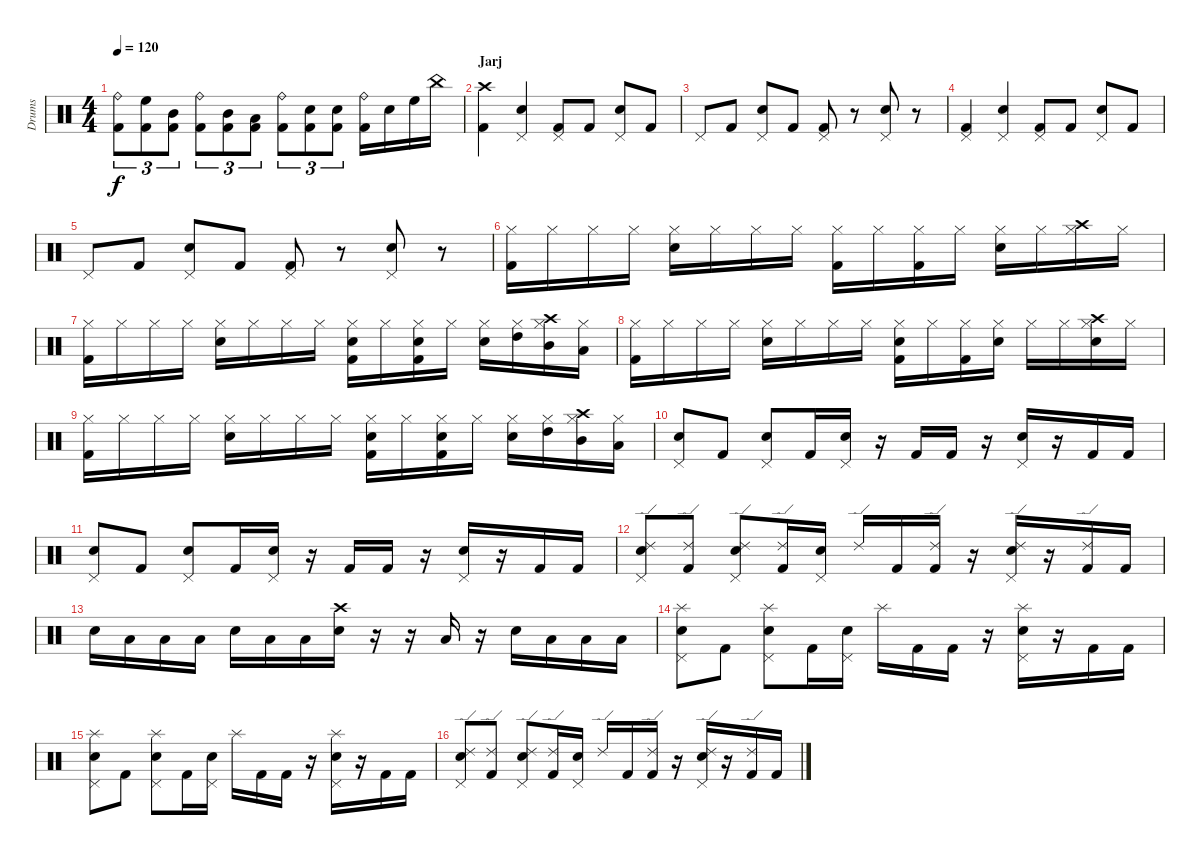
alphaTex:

\track ("Drums" "Drums") {instrument percussion}
\staff {score}
\articulation defaults
\ts (4 4)
\tempo 120
\clef neutral
\ks c
("Ride (bell)" "Kick (hit) 2").8{tu (3 2) dy f} ("High Floor Tom (hit)" "Kick (hit) 2").8{tu (3 2)} ("Mid Tom (hit)" "Kick (hit) 2").8{tu (3 2)} ("Ride (bell)" "Kick (hit) 2").8{tu (3 2)} ("Mid Tom (hit)" "Kick (hit) 2").8{tu (3 2)} ("Low Tom (hit)" "Kick (hit) 2").8{tu (3 2)} ("Ride (bell)" "Kick (hit) 2").8{tu (3 2)} ("Electric Snare (hit)" "Kick (hit) 2").8{tu (3 2)} ("Electric Snare (hit)" "Kick (hit) 2").8{tu (3 2)} ("Ride (bell)" "Kick (hit) 2").16 "Electric Snare (hit)".16 "High Floor Tom (hit)".16 "China (hit)".16 |
\section ("" "Jarj")
("Crash high (hit)" "Kick (hit) 2").4 ("Pedal Hi-Hat (hit)" "Electric Snare (hit)").4 ("Pedal Hi-Hat (hit)" "Kick (hit) 2").8 "Kick (hit) 2".8 ("Pedal Hi-Hat (hit)" "Electric Snare (hit)").8 "Kick (hit) 2".8 |
"Pedal Hi-Hat (hit)".8 "Kick (hit) 2".8 ("Pedal Hi-Hat (hit)" "Electric Snare (hit)").8 "Kick (hit) 2".8 ("Pedal Hi-Hat (hit)" "Kick (hit) 2").8 r.8 ("Pedal Hi-Hat (hit)" "Electric Snare (hit)").8 r.8 |
("Pedal Hi-Hat (hit)" "Kick (hit) 2").4 ("Pedal Hi-Hat (hit)" "Electric Snare (hit)").4 ("Pedal Hi-Hat (hit)" "Kick (hit) 2").8 "Kick (hit) 2".8 ("Pedal Hi-Hat (hit)" "Electric Snare (hit)").8 "Kick (hit) 2".8 |
"Pedal Hi-Hat (hit)".8 "Kick (hit) 2".8 ("Pedal Hi-Hat (hit)" "Electric Snare (hit)").8 "Kick (hit) 2".8 ("Pedal Hi-Hat (hit)" "Kick (hit) 2").8 r.8 ("Pedal Hi-Hat (hit)" "Electric Snare (hit)").8 r.8 |
("Hi-Hat (closed)" "Kick (hit) 2").16 "Hi-Hat (closed)".16 "Hi-Hat (closed)".16 "Hi-Hat (closed)".16 ("Hi-Hat (closed)" "Electric Snare (hit)").16 "Hi-Hat (closed)".16 "Hi-Hat (closed)".16 "Hi-Hat (closed)".16 ("Hi-Hat (closed)" "Kick (hit) 2").16 "Hi-Hat (closed)".16 ("Hi-Hat (closed)" "Kick (hit) 2").16 "Hi-Hat (closed)".16 ("Hi-Hat (closed)" "Electric Snare (hit)").16 "Hi-Hat (closed)".16 ("Crash high (hit)" "Hi-Hat (closed)").16 "Hi-Hat (closed)".16 |
("Hi-Hat (closed)" "Kick (hit) 2").16 "Hi-Hat (closed)".16 "Hi-Hat (closed)".16 "Hi-Hat (closed)".16 ("Hi-Hat (closed)" "Electric Snare (hit)").16 "Hi-Hat (closed)".16 "Hi-Hat (closed)".16 "Hi-Hat (closed)".16 ("Hi-Hat (closed)" "Electric Snare (hit)" "Kick (hit) 2").16 "Hi-Hat (closed)".16 ("Hi-Hat (closed)" "Electric Snare (hit)" "Kick (hit) 2").16 "Hi-Hat (closed)".16 ("Hi-Hat (closed)" "Electric Snare (hit)").16 ("Hi-Hat (closed)" "High Tom (hit)").16 ("Crash high (hit)" "Hi-Hat (closed)" "Mid Tom (hit)").16 ("Hi-Hat (closed)" "Low Tom (hit)").16 |
("Hi-Hat (closed)" "Kick (hit) 2").16 "Hi-Hat (closed)".16 "Hi-Hat (closed)".16 "Hi-Hat (closed)".16 ("Hi-Hat (closed)" "Electric Snare (hit)").16 "Hi-Hat (closed)".16 "Hi-Hat (closed)".16 "Hi-Hat (closed)".16 ("Hi-Hat (closed)" "Electric Snare (hit)" "Kick (hit) 2").16 "Hi-Hat (closed)".16 ("Hi-Hat (closed)" "Kick (hit) 2").16 ("Hi-Hat (closed)" "Electric Snare (hit)").16 "Hi-Hat (closed)".16 "Hi-Hat (closed)".16 ("Crash high (hit)" "Hi-Hat (closed)" "Electric Snare (hit)").16 "Hi-Hat (closed)".16 |
("Hi-Hat (closed)" "Kick (hit) 2").16 "Hi-Hat (closed)".16 "Hi-Hat (closed)".16 "Hi-Hat (closed)".16 ("Hi-Hat (closed)" "Electric Snare (hit)").16 "Hi-Hat (closed)".16 "Hi-Hat (closed)".16 "Hi-Hat (closed)".16 ("Hi-Hat (closed)" "Electric Snare (hit)" "Kick (hit) 2").16 "Hi-Hat (closed)".16 ("Hi-Hat (closed)" "Electric Snare (hit)" "Kick (hit) 2").16 "Hi-Hat (closed)".16 ("Hi-Hat (closed)" "Electric Snare (hit)").16 ("Hi-Hat (closed)" "High Tom (hit)").16 ("Crash high (hit)" "Hi-Hat (closed)" "Mid Tom (hit)").16 ("Hi-Hat (closed)" "Low Tom (hit)").16 |
("Pedal Hi-Hat (hit)" "Electric Snare (hit)").8 "Kick (hit) 2".8 ("Pedal Hi-Hat (hit)" "Electric Snare (hit)").8 "Kick (hit) 2".16 ("Pedal Hi-Hat (hit)" "Electric Snare (hit)").16 r.16 "Kick (hit) 2".16 "Kick (hit) 2".16 r.16 ("Pedal Hi-Hat (hit)" "Electric Snare (hit)").16 r.16 "Kick (hit) 2".16 "Kick (hit) 2".16 |
("Pedal Hi-Hat (hit)" "Electric Snare (hit)").8 "Kick (hit) 2".8 ("Pedal Hi-Hat (hit)" "Electric Snare (hit)").8 "Kick (hit) 2".16 ("Pedal Hi-Hat (hit)" "Electric Snare (hit)").16 r.16 "Kick (hit) 2".16 "Kick (hit) 2".16 r.16 ("Pedal Hi-Hat (hit)" "Electric Snare (hit)").16 r.16 "Kick (hit) 2".16 "Kick (hit) 2".16 |
("Ride (edge) 2" "Pedal Hi-Hat (hit)" "Electric Snare (hit)").8 ("Ride (edge) 2" "Kick (hit) 2").8 ("Ride (edge) 2" "Pedal Hi-Hat (hit)" "Electric Snare (hit)").8 ("Ride (edge) 2" "Kick (hit) 2").16 ("Pedal Hi-Hat (hit)" "Electric Snare (hit)").16 "Ride (edge) 2".16 "Kick (hit) 2".16 ("Ride (edge) 2" "Kick (hit) 2").16 r.16 ("Ride (edge) 2" "Pedal Hi-Hat (hit)" "Electric Snare (hit)").16 r.16 ("Ride (edge) 2" "Kick (hit) 2").16 "Kick (hit) 2".16 |
"Electric Snare (hit)".16 "Low Floor Tom (hit)".16 "Low Floor Tom (hit)".16 "Low Floor Tom (hit)".16 "Electric Snare (hit)".16 "Low Floor Tom (hit)".16 "Low Floor Tom (hit)".16 ("Crash high (hit)" "Electric Snare (hit)").16 r.16 r.16 "Low Floor Tom (hit)".16 r.16 "Electric Snare (hit)".16 "Low Floor Tom (hit)".16 "Low Floor Tom (hit)".16 "Low Floor Tom (hit)".16 |
("Splash (hit)" "Pedal Hi-Hat (hit)" "Electric Snare (hit)").8 "Kick (hit) 2".8 ("Splash (hit)" "Pedal Hi-Hat (hit)" "Electric Snare (hit)").8 "Kick (hit) 2".16 ("Pedal Hi-Hat (hit)" "Electric Snare (hit)").16 "Splash (hit)".16 "Kick (hit) 2".16 "Kick (hit) 2".16 r.16 ("Splash (hit)" "Pedal Hi-Hat (hit)" "Electric Snare (hit)").16 r.16 "Kick (hit) 2".16 "Kick (hit) 2".16 |
("Splash (hit)" "Pedal Hi-Hat (hit)" "Electric Snare (hit)").8 "Kick (hit) 2".8 ("Splash (hit)" "Pedal Hi-Hat (hit)" "Electric Snare (hit)").8 "Kick (hit) 2".16 ("Pedal Hi-Hat (hit)" "Electric Snare (hit)").16 "Splash (hit)".16 "Kick (hit) 2".16 "Kick (hit) 2".16 r.16 ("Splash (hit)" "Pedal Hi-Hat (hit)" "Electric Snare (hit)").16 r.16 "Kick (hit) 2".16 "Kick (hit) 2".16 |
("Ride (edge) 2" "Pedal Hi-Hat (hit)" "Electric Snare (hit)").8 ("Ride (edge) 2" "Kick (hit) 2").8 ("Ride (edge) 2" "Pedal Hi-Hat (hit)" "Electric Snare (hit)").8 ("Ride (edge) 2" "Kick (hit) 2").16 ("Pedal Hi-Hat (hit)" "Electric Snare (hit)").16 "Ride (edge) 2".16 "Kick (hit) 2".16 ("Ride (edge) 2" "Kick (hit) 2").16 r.16 ("Ride (edge) 2" "Pedal Hi-Hat (hit)" "Electric Snare (hit)").16 r.16 ("Ride (edge) 2" "Kick (hit) 2").16 "Kick (hit) 2".16
